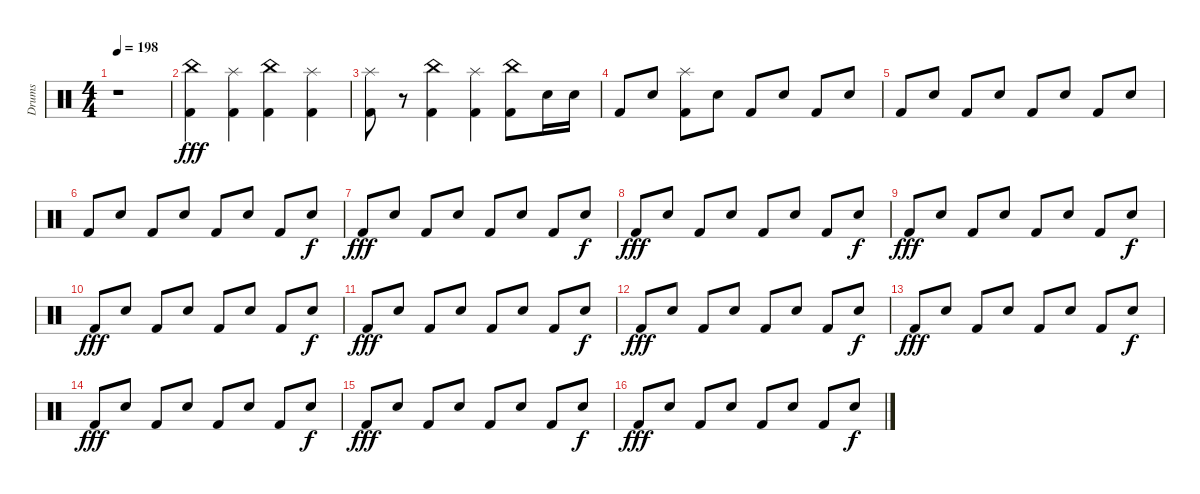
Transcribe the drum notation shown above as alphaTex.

\track ("Drums" "Drums") {instrument percussion}
\staff {score}
\articulation defaults
\ts (4 4)
\tempo 198
\clef neutral
\ks c
r.1{dy fff} |
("China (hit)" "Kick (hit) 2").4 ("Splash (hit)" "Kick (hit) 2").4 ("China (hit)" "Kick (hit) 2").4 ("Splash (hit)" "Kick (hit) 2").4 |
("Splash (hit)" "Kick (hit) 2").8 r.8 ("China (hit)" "Kick (hit) 2").4 ("Splash (hit)" "Kick (hit) 2").4 ("China (hit)" "Kick (hit) 2").8 "Snare (hit) 2".16 "Snare (hit) 2".16 |
"Kick (hit) 2".8 "Snare (hit) 2".8 ("Splash (hit)" "Kick (hit) 2").8 "Snare (hit) 2".8 "Kick (hit) 2".8 "Snare (hit) 2".8 "Kick (hit) 2".8 "Snare (hit) 2".8 |
"Kick (hit) 2".8 "Snare (hit) 2".8 "Kick (hit) 2".8 "Snare (hit) 2".8 "Kick (hit) 2".8 "Snare (hit) 2".8 "Kick (hit) 2".8 "Snare (hit) 2".8 |
"Kick (hit) 2".8 "Snare (hit) 2".8 "Kick (hit) 2".8 "Snare (hit) 2".8 "Kick (hit) 2".8 "Snare (hit) 2".8 "Kick (hit) 2".8 "Snare (hit) 2".8{dy f} |
"Kick (hit) 2".8{dy fff} "Snare (hit) 2".8 "Kick (hit) 2".8 "Snare (hit) 2".8 "Kick (hit) 2".8 "Snare (hit) 2".8 "Kick (hit) 2".8 "Snare (hit) 2".8{dy f} |
"Kick (hit) 2".8{dy fff} "Snare (hit) 2".8 "Kick (hit) 2".8 "Snare (hit) 2".8 "Kick (hit) 2".8 "Snare (hit) 2".8 "Kick (hit) 2".8 "Snare (hit) 2".8{dy f} |
"Kick (hit) 2".8{dy fff} "Snare (hit) 2".8 "Kick (hit) 2".8 "Snare (hit) 2".8 "Kick (hit) 2".8 "Snare (hit) 2".8 "Kick (hit) 2".8 "Snare (hit) 2".8{dy f} |
"Kick (hit) 2".8{dy fff} "Snare (hit) 2".8 "Kick (hit) 2".8 "Snare (hit) 2".8 "Kick (hit) 2".8 "Snare (hit) 2".8 "Kick (hit) 2".8 "Snare (hit) 2".8{dy f} |
"Kick (hit) 2".8{dy fff} "Snare (hit) 2".8 "Kick (hit) 2".8 "Snare (hit) 2".8 "Kick (hit) 2".8 "Snare (hit) 2".8 "Kick (hit) 2".8 "Snare (hit) 2".8{dy f} |
"Kick (hit) 2".8{dy fff} "Snare (hit) 2".8 "Kick (hit) 2".8 "Snare (hit) 2".8 "Kick (hit) 2".8 "Snare (hit) 2".8 "Kick (hit) 2".8 "Snare (hit) 2".8{dy f} |
"Kick (hit) 2".8{dy fff} "Snare (hit) 2".8 "Kick (hit) 2".8 "Snare (hit) 2".8 "Kick (hit) 2".8 "Snare (hit) 2".8 "Kick (hit) 2".8 "Snare (hit) 2".8{dy f} |
"Kick (hit) 2".8{dy fff} "Snare (hit) 2".8 "Kick (hit) 2".8 "Snare (hit) 2".8 "Kick (hit) 2".8 "Snare (hit) 2".8 "Kick (hit) 2".8 "Snare (hit) 2".8{dy f} |
"Kick (hit) 2".8{dy fff} "Snare (hit) 2".8 "Kick (hit) 2".8 "Snare (hit) 2".8 "Kick (hit) 2".8 "Snare (hit) 2".8 "Kick (hit) 2".8 "Snare (hit) 2".8{dy f} |
"Kick (hit) 2".8{dy fff} "Snare (hit) 2".8 "Kick (hit) 2".8 "Snare (hit) 2".8 "Kick (hit) 2".8 "Snare (hit) 2".8 "Kick (hit) 2".8 "Snare (hit) 2".8{dy f}
